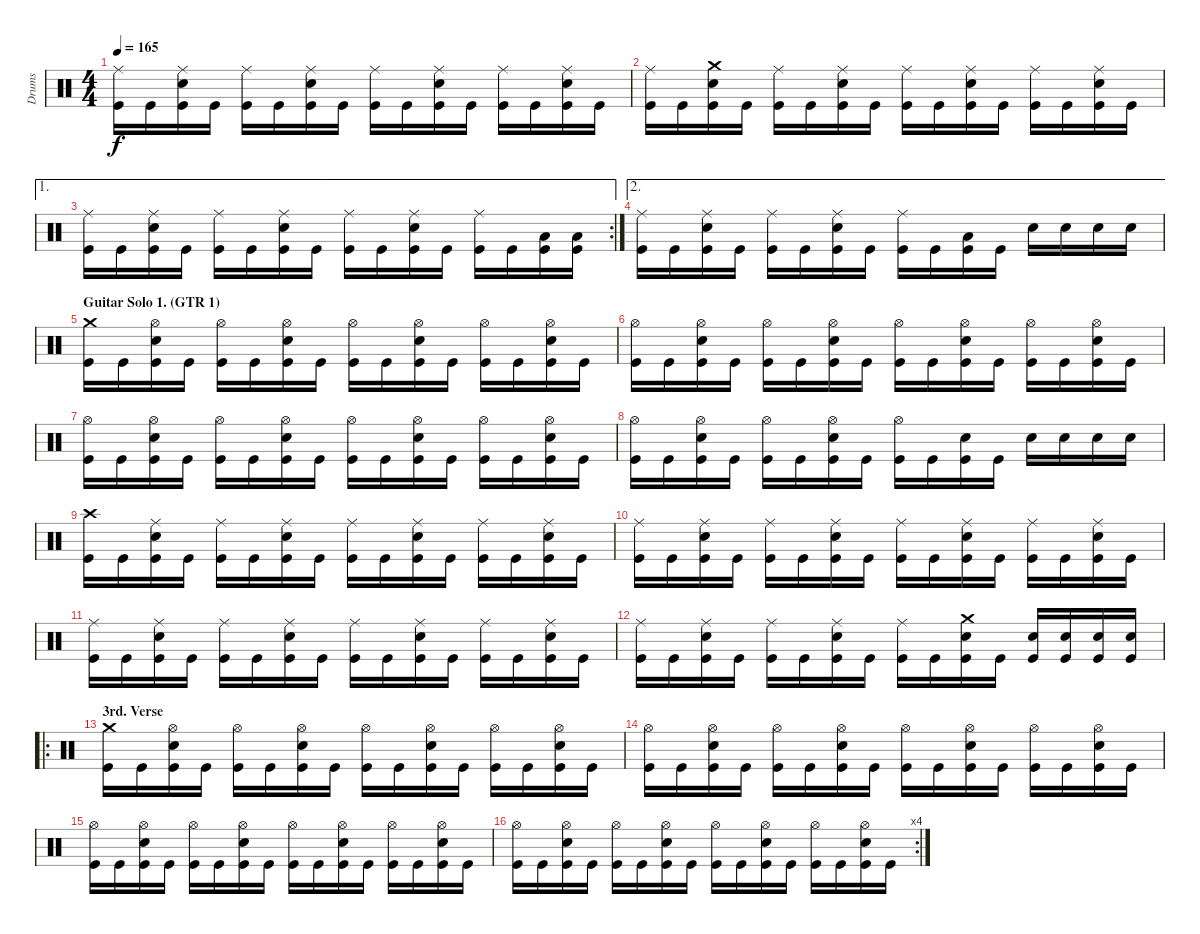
\track ("Drums" "Drums") {instrument percussion}
\staff {score}
\articulation defaults
\ts (4 4)
\tempo 165
\clef neutral
\ks c
("Ride (middle)" "Kick (hit)").16{dy f} "Kick (hit)".16 ("Ride (middle)" "Snare (hit) 2" "Kick (hit)").16 "Kick (hit)".16 ("Ride (middle)" "Kick (hit)").16 "Kick (hit)".16 ("Ride (middle)" "Snare (hit) 2" "Kick (hit)").16 "Kick (hit)".16 ("Ride (middle)" "Kick (hit)").16 "Kick (hit)".16 ("Ride (middle)" "Snare (hit) 2" "Kick (hit)").16 "Kick (hit)".16 ("Ride (middle)" "Kick (hit)").16 "Kick (hit)".16 ("Ride (middle)" "Snare (hit) 2" "Kick (hit)").16 "Kick (hit)".16 |
("Ride (middle)" "Kick (hit)").16 "Kick (hit)".16 ("Crash medium (hit)" "Snare (hit) 2" "Kick (hit)").16 "Kick (hit)".16 ("Ride (middle)" "Kick (hit)").16 "Kick (hit)".16 ("Ride (middle)" "Snare (hit) 2" "Kick (hit)").16 "Kick (hit)".16 ("Ride (middle)" "Kick (hit)").16 "Kick (hit)".16 ("Ride (middle)" "Snare (hit) 2" "Kick (hit)").16 "Kick (hit)".16 ("Ride (middle)" "Kick (hit)").16 "Kick (hit)".16 ("Ride (middle)" "Snare (hit) 2" "Kick (hit)").16 "Kick (hit)".16 |
\ae 1
\rc 2
("Ride (middle)" "Kick (hit)").16 "Kick (hit)".16 ("Ride (middle)" "Snare (hit) 2" "Kick (hit)").16 "Kick (hit)".16 ("Ride (middle)" "Kick (hit)").16 "Kick (hit)".16 ("Ride (middle)" "Snare (hit) 2" "Kick (hit)").16 "Kick (hit)".16 ("Ride (middle)" "Kick (hit)").16 "Kick (hit)".16 ("Ride (middle)" "Snare (hit) 2" "Kick (hit)").16 "Kick (hit)".16 ("Ride (middle)" "Kick (hit)").16 "Kick (hit)".16 ("Low Tom (hit)" "Kick (hit)").16 ("Low Tom (hit)" "Kick (hit)").16 |
\ae 2
("Ride (middle)" "Kick (hit)").16 "Kick (hit)".16 ("Ride (middle)" "Snare (hit) 2" "Kick (hit)").16 "Kick (hit)".16 ("Ride (middle)" "Kick (hit)").16 "Kick (hit)".16 ("Ride (middle)" "Snare (hit) 2" "Kick (hit)").16 "Kick (hit)".16 ("Ride (middle)" "Kick (hit)").16 "Kick (hit)".16 ("Low Tom (hit)" "Kick (hit)").16 "Kick (hit)".16 "Snare (hit) 2".16 "Snare (hit) 2".16 "Snare (hit) 2".16 "Snare (hit) 2".16 |
\section ("" "Guitar Solo 1. (GTR 1)")
("Crash medium (hit)" "Kick (hit)").16 "Kick (hit)".16 ("Hi-Hat (open)" "Snare (hit) 2" "Kick (hit)").16 "Kick (hit)".16 ("Hi-Hat (open)" "Kick (hit)").16 "Kick (hit)".16 ("Hi-Hat (open)" "Snare (hit) 2" "Kick (hit)").16 "Kick (hit)".16 ("Hi-Hat (open)" "Kick (hit)").16 "Kick (hit)".16 ("Hi-Hat (open)" "Snare (hit) 2" "Kick (hit)").16 "Kick (hit)".16 ("Hi-Hat (open)" "Kick (hit)").16 "Kick (hit)".16 ("Hi-Hat (open)" "Snare (hit) 2" "Kick (hit)").16 "Kick (hit)".16 |
("Hi-Hat (open)" "Kick (hit)").16 "Kick (hit)".16 ("Hi-Hat (open)" "Snare (hit) 2" "Kick (hit)").16 "Kick (hit)".16 ("Hi-Hat (open)" "Kick (hit)").16 "Kick (hit)".16 ("Hi-Hat (open)" "Snare (hit) 2" "Kick (hit)").16 "Kick (hit)".16 ("Hi-Hat (open)" "Kick (hit)").16 "Kick (hit)".16 ("Hi-Hat (open)" "Snare (hit) 2" "Kick (hit)").16 "Kick (hit)".16 ("Hi-Hat (open)" "Kick (hit)").16 "Kick (hit)".16 ("Hi-Hat (open)" "Snare (hit) 2" "Kick (hit)").16 "Kick (hit)".16 |
("Hi-Hat (open)" "Kick (hit)").16 "Kick (hit)".16 ("Hi-Hat (open)" "Snare (hit) 2" "Kick (hit)").16 "Kick (hit)".16 ("Hi-Hat (open)" "Kick (hit)").16 "Kick (hit)".16 ("Hi-Hat (open)" "Snare (hit) 2" "Kick (hit)").16 "Kick (hit)".16 ("Hi-Hat (open)" "Kick (hit)").16 "Kick (hit)".16 ("Hi-Hat (open)" "Snare (hit) 2" "Kick (hit)").16 "Kick (hit)".16 ("Hi-Hat (open)" "Kick (hit)").16 "Kick (hit)".16 ("Hi-Hat (open)" "Snare (hit) 2" "Kick (hit)").16 "Kick (hit)".16 |
("Hi-Hat (open)" "Kick (hit)").16 "Kick (hit)".16 ("Hi-Hat (open)" "Snare (hit) 2" "Kick (hit)").16 "Kick (hit)".16 ("Hi-Hat (open)" "Kick (hit)").16 "Kick (hit)".16 ("Hi-Hat (open)" "Snare (hit) 2" "Kick (hit)").16 "Kick (hit)".16 ("Hi-Hat (open)" "Kick (hit)").16 "Kick (hit)".16 ("Snare (hit) 2" "Kick (hit)").16 "Kick (hit)".16 "Snare (hit) 2".16 "Snare (hit) 2".16 "Snare (hit) 2".16 "Snare (hit) 2".16 |
("Crash high (hit)" "Kick (hit)").16 "Kick (hit)".16 ("Ride (middle)" "Snare (hit) 2" "Kick (hit)").16 "Kick (hit)".16 ("Ride (middle)" "Kick (hit)").16 "Kick (hit)".16 ("Ride (middle)" "Snare (hit) 2" "Kick (hit)").16 "Kick (hit)".16 ("Ride (middle)" "Kick (hit)").16 "Kick (hit)".16 ("Ride (middle)" "Snare (hit) 2" "Kick (hit)").16 "Kick (hit)".16 ("Ride (middle)" "Kick (hit)").16 "Kick (hit)".16 ("Ride (middle)" "Snare (hit) 2" "Kick (hit)").16 "Kick (hit)".16 |
("Ride (middle)" "Kick (hit)").16 "Kick (hit)".16 ("Ride (middle)" "Snare (hit) 2" "Kick (hit)").16 "Kick (hit)".16 ("Ride (middle)" "Kick (hit)").16 "Kick (hit)".16 ("Ride (middle)" "Snare (hit) 2" "Kick (hit)").16 "Kick (hit)".16 ("Ride (middle)" "Kick (hit)").16 "Kick (hit)".16 ("Ride (middle)" "Snare (hit) 2" "Kick (hit)").16 "Kick (hit)".16 ("Ride (middle)" "Kick (hit)").16 "Kick (hit)".16 ("Ride (middle)" "Snare (hit) 2" "Kick (hit)").16 "Kick (hit)".16 |
("Ride (middle)" "Kick (hit)").16 "Kick (hit)".16 ("Ride (middle)" "Snare (hit) 2" "Kick (hit)").16 "Kick (hit)".16 ("Ride (middle)" "Kick (hit)").16 "Kick (hit)".16 ("Ride (middle)" "Snare (hit) 2" "Kick (hit)").16 "Kick (hit)".16 ("Ride (middle)" "Kick (hit)").16 "Kick (hit)".16 ("Ride (middle)" "Snare (hit) 2" "Kick (hit)").16 "Kick (hit)".16 ("Ride (middle)" "Kick (hit)").16 "Kick (hit)".16 ("Ride (middle)" "Snare (hit) 2" "Kick (hit)").16 "Kick (hit)".16 |
("Ride (middle)" "Kick (hit)").16 "Kick (hit)".16 ("Ride (middle)" "Snare (hit) 2" "Kick (hit)").16 "Kick (hit)".16 ("Ride (middle)" "Kick (hit)").16 "Kick (hit)".16 ("Ride (middle)" "Snare (hit) 2" "Kick (hit)").16 "Kick (hit)".16 ("Ride (middle)" "Kick (hit)").16 "Kick (hit)".16 ("Crash medium (hit)" "Snare (hit) 2" "Kick (hit)").16 "Kick (hit)".16 ("Snare (hit) 2" "Kick (hit)").16 ("Snare (hit) 2" "Kick (hit)").16 ("Snare (hit) 2" "Kick (hit)").16 ("Snare (hit) 2" "Kick (hit)").16 |
\ro
\section ("" "3rd. Verse")
("Crash medium (hit)" "Kick (hit)").16 "Kick (hit)".16 ("Hi-Hat (open)" "Snare (hit) 2" "Kick (hit)").16 "Kick (hit)".16 ("Hi-Hat (open)" "Kick (hit)").16 "Kick (hit)".16 ("Hi-Hat (open)" "Snare (hit) 2" "Kick (hit)").16 "Kick (hit)".16 ("Hi-Hat (open)" "Kick (hit)").16 "Kick (hit)".16 ("Hi-Hat (open)" "Snare (hit) 2" "Kick (hit)").16 "Kick (hit)".16 ("Hi-Hat (open)" "Kick (hit)").16 "Kick (hit)".16 ("Hi-Hat (open)" "Snare (hit) 2" "Kick (hit)").16 "Kick (hit)".16 |
("Hi-Hat (open)" "Kick (hit)").16 "Kick (hit)".16 ("Hi-Hat (open)" "Snare (hit) 2" "Kick (hit)").16 "Kick (hit)".16 ("Hi-Hat (open)" "Kick (hit)").16 "Kick (hit)".16 ("Hi-Hat (open)" "Snare (hit) 2" "Kick (hit)").16 "Kick (hit)".16 ("Hi-Hat (open)" "Kick (hit)").16 "Kick (hit)".16 ("Hi-Hat (open)" "Snare (hit) 2" "Kick (hit)").16 "Kick (hit)".16 ("Hi-Hat (open)" "Kick (hit)").16 "Kick (hit)".16 ("Hi-Hat (open)" "Snare (hit) 2" "Kick (hit)").16 "Kick (hit)".16 |
("Hi-Hat (open)" "Kick (hit)").16 "Kick (hit)".16 ("Hi-Hat (open)" "Snare (hit) 2" "Kick (hit)").16 "Kick (hit)".16 ("Hi-Hat (open)" "Kick (hit)").16 "Kick (hit)".16 ("Hi-Hat (open)" "Snare (hit) 2" "Kick (hit)").16 "Kick (hit)".16 ("Hi-Hat (open)" "Kick (hit)").16 "Kick (hit)".16 ("Hi-Hat (open)" "Snare (hit) 2" "Kick (hit)").16 "Kick (hit)".16 ("Hi-Hat (open)" "Kick (hit)").16 "Kick (hit)".16 ("Hi-Hat (open)" "Snare (hit) 2" "Kick (hit)").16 "Kick (hit)".16 |
\rc 4
("Hi-Hat (open)" "Kick (hit)").16 "Kick (hit)".16 ("Hi-Hat (open)" "Snare (hit) 2" "Kick (hit)").16 "Kick (hit)".16 ("Hi-Hat (open)" "Kick (hit)").16 "Kick (hit)".16 ("Hi-Hat (open)" "Snare (hit) 2" "Kick (hit)").16 "Kick (hit)".16 ("Hi-Hat (open)" "Kick (hit)").16 "Kick (hit)".16 ("Hi-Hat (open)" "Snare (hit) 2" "Kick (hit)").16 "Kick (hit)".16 ("Hi-Hat (open)" "Kick (hit)").16 "Kick (hit)".16 ("Hi-Hat (open)" "Snare (hit) 2" "Kick (hit)").16 "Kick (hit)".16
